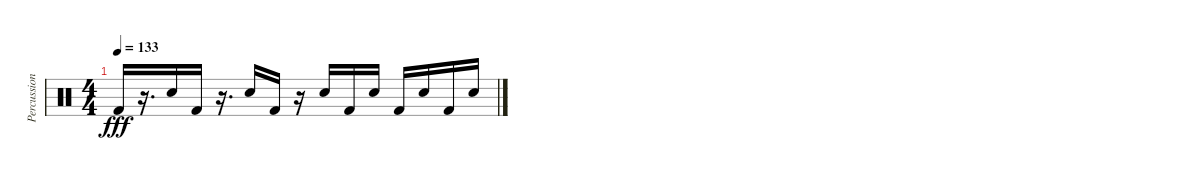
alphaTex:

\track ("Percussion" "Percussion") {instrument percussion}
\staff {score}
\articulation defaults
\ts (4 4)
\tempo 133
\clef neutral
\ks c "Kick (hit) 2".16{dy fff}
r.16{d} "Electric Snare (hit)".16 "Kick (hit) 2".16 r.16{d} "Electric Snare (hit)".16 "Kick (hit) 2".16 r.16 "Electric Snare (hit)".16 "Kick (hit) 2".16 "Electric Snare (hit)".16 "Kick (hit) 2".16 "Electric Snare (hit)".16 "Kick (hit) 2".16 "Electric Snare (hit)".16
